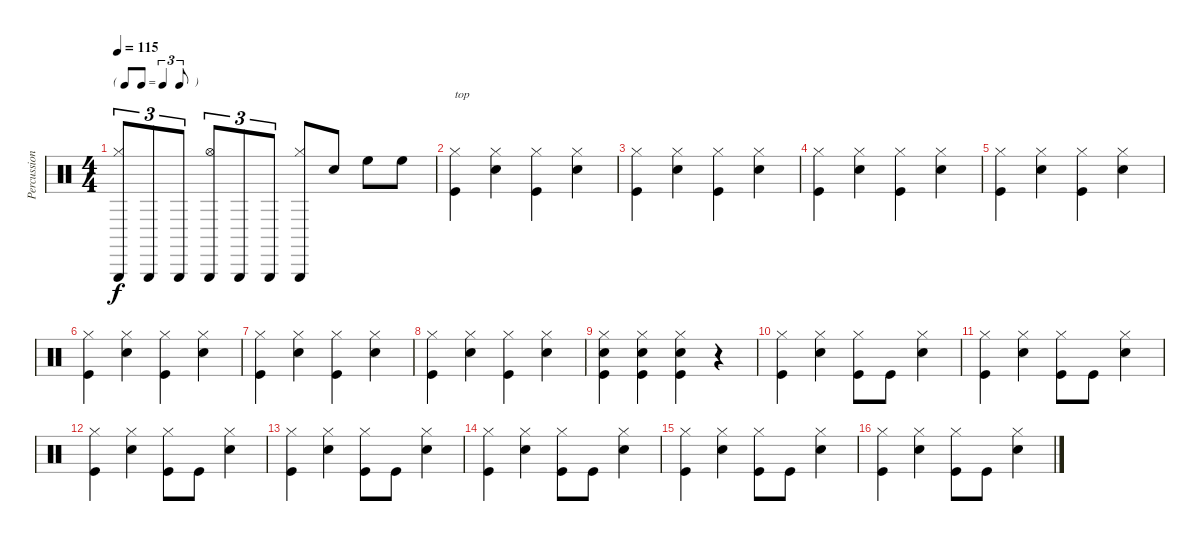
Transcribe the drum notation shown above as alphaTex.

\track ("Percussion" "Percussion") {instrument percussion}
\staff {score}
\articulation defaults
\ts (4 4)
\tf triplet8th
\tempo 115
\clef neutral
\ks c
("Hi-Hat (closed)" "Triangle (hit)").8{tu (3 2) dy f} "Triangle (hit)".8{tu (3 2)} "Triangle (hit)".8{tu (3 2)} ("Hi-Hat (open)" "Triangle (hit)").8{tu (3 2)} "Triangle (hit)".8{tu (3 2)} "Triangle (hit)".8{tu (3 2)} ("Hi-Hat (closed)" "Triangle (hit)").8 "Snare (hit) 2".8 "High Floor Tom (hit)".8 "High Floor Tom (hit)".8 |
("Hi-Hat (closed)" "Kick (hit)").4{txt "top"} ("Hi-Hat (closed)" "Snare (hit) 2").4 ("Hi-Hat (closed)" "Kick (hit)").4 ("Hi-Hat (closed)" "Snare (hit) 2").4 |
("Hi-Hat (closed)" "Kick (hit)").4 ("Hi-Hat (closed)" "Snare (hit) 2").4 ("Hi-Hat (closed)" "Kick (hit)").4 ("Hi-Hat (closed)" "Snare (hit) 2").4 |
("Hi-Hat (closed)" "Kick (hit)").4 ("Hi-Hat (closed)" "Snare (hit) 2").4 ("Hi-Hat (closed)" "Kick (hit)").4 ("Hi-Hat (closed)" "Snare (hit) 2").4 |
("Hi-Hat (closed)" "Kick (hit)").4 ("Hi-Hat (closed)" "Snare (hit) 2").4 ("Hi-Hat (closed)" "Kick (hit)").4 ("Hi-Hat (closed)" "Snare (hit) 2").4 |
("Hi-Hat (closed)" "Kick (hit)").4 ("Hi-Hat (closed)" "Snare (hit) 2").4 ("Hi-Hat (closed)" "Kick (hit)").4 ("Hi-Hat (closed)" "Snare (hit) 2").4 |
("Hi-Hat (closed)" "Kick (hit)").4 ("Hi-Hat (closed)" "Snare (hit) 2").4 ("Hi-Hat (closed)" "Kick (hit)").4 ("Hi-Hat (closed)" "Snare (hit) 2").4 |
("Hi-Hat (closed)" "Kick (hit)").4 ("Hi-Hat (closed)" "Snare (hit) 2").4 ("Hi-Hat (closed)" "Kick (hit)").4 ("Hi-Hat (closed)" "Snare (hit) 2").4 |
("Hi-Hat (closed)" "Snare (hit) 2" "Kick (hit)").4 ("Hi-Hat (closed)" "Snare (hit) 2" "Kick (hit)").4 ("Hi-Hat (closed)" "Snare (hit) 2" "Kick (hit)").4 r.4 |
("Hi-Hat (closed)" "Kick (hit)").4 ("Hi-Hat (closed)" "Snare (hit) 2").4 ("Hi-Hat (closed)" "Kick (hit)").8 "Kick (hit)".8 ("Hi-Hat (closed)" "Snare (hit) 2").4 |
("Hi-Hat (closed)" "Kick (hit)").4 ("Hi-Hat (closed)" "Snare (hit) 2").4 ("Hi-Hat (closed)" "Kick (hit)").8 "Kick (hit)".8 ("Hi-Hat (closed)" "Snare (hit) 2").4 |
("Hi-Hat (closed)" "Kick (hit)").4 ("Hi-Hat (closed)" "Snare (hit) 2").4 ("Hi-Hat (closed)" "Kick (hit)").8 "Kick (hit)".8 ("Hi-Hat (closed)" "Snare (hit) 2").4 |
("Hi-Hat (closed)" "Kick (hit)").4 ("Hi-Hat (closed)" "Snare (hit) 2").4 ("Hi-Hat (closed)" "Kick (hit)").8 "Kick (hit)".8 ("Hi-Hat (closed)" "Snare (hit) 2").4 |
("Hi-Hat (closed)" "Kick (hit)").4 ("Hi-Hat (closed)" "Snare (hit) 2").4 ("Hi-Hat (closed)" "Kick (hit)").8 "Kick (hit)".8 ("Hi-Hat (closed)" "Snare (hit) 2").4 |
("Hi-Hat (closed)" "Kick (hit)").4 ("Hi-Hat (closed)" "Snare (hit) 2").4 ("Hi-Hat (closed)" "Kick (hit)").8 "Kick (hit)".8 ("Hi-Hat (closed)" "Snare (hit) 2").4 |
("Hi-Hat (closed)" "Kick (hit)").4 ("Hi-Hat (closed)" "Snare (hit) 2").4 ("Hi-Hat (closed)" "Kick (hit)").8 "Kick (hit)".8 ("Hi-Hat (closed)" "Snare (hit) 2").4
